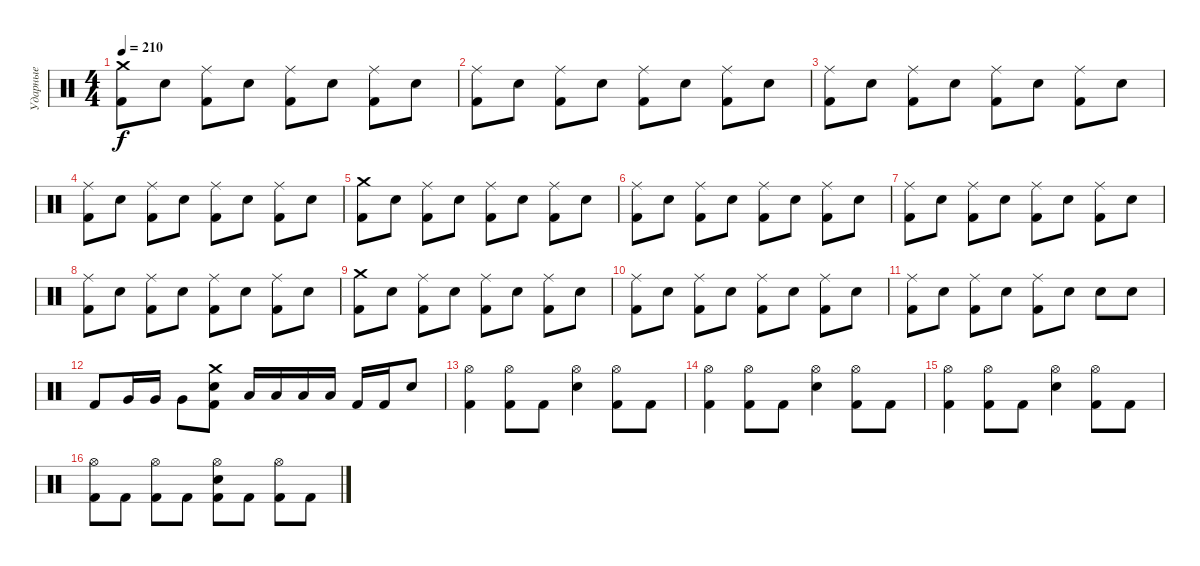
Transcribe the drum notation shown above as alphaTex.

\track ("Ударные" "Ударные") {instrument percussion}
\staff {score}
\articulation defaults
\ts (4 4)
\tempo 210
\clef neutral
\ks c
("Crash medium (hit)" "Kick (hit) 2").8{dy f} "Snare (hit) 2".8 ("Ride (middle)" "Kick (hit) 2").8 "Snare (hit) 2".8 ("Ride (middle)" "Kick (hit) 2").8 "Snare (hit) 2".8 ("Ride (middle)" "Kick (hit) 2").8 "Snare (hit) 2".8 |
("Ride (middle)" "Kick (hit) 2").8 "Snare (hit) 2".8 ("Ride (middle)" "Kick (hit) 2").8 "Snare (hit) 2".8 ("Ride (middle)" "Kick (hit) 2").8 "Snare (hit) 2".8 ("Ride (middle)" "Kick (hit) 2").8 "Snare (hit) 2".8 |
("Ride (middle)" "Kick (hit) 2").8 "Snare (hit) 2".8 ("Ride (middle)" "Kick (hit) 2").8 "Snare (hit) 2".8 ("Ride (middle)" "Kick (hit) 2").8 "Snare (hit) 2".8 ("Ride (middle)" "Kick (hit) 2").8 "Snare (hit) 2".8 |
("Ride (middle)" "Kick (hit) 2").8 "Snare (hit) 2".8 ("Ride (middle)" "Kick (hit) 2").8 "Snare (hit) 2".8 ("Ride (middle)" "Kick (hit) 2").8 "Snare (hit) 2".8 ("Ride (middle)" "Kick (hit) 2").8 "Snare (hit) 2".8 |
("Crash medium (hit)" "Kick (hit) 2").8 "Snare (hit) 2".8 ("Ride (middle)" "Kick (hit) 2").8 "Snare (hit) 2".8 ("Ride (middle)" "Kick (hit) 2").8 "Snare (hit) 2".8 ("Ride (middle)" "Kick (hit) 2").8 "Snare (hit) 2".8 |
("Ride (middle)" "Kick (hit) 2").8 "Snare (hit) 2".8 ("Ride (middle)" "Kick (hit) 2").8 "Snare (hit) 2".8 ("Ride (middle)" "Kick (hit) 2").8 "Snare (hit) 2".8 ("Ride (middle)" "Kick (hit) 2").8 "Snare (hit) 2".8 |
("Ride (middle)" "Kick (hit) 2").8 "Snare (hit) 2".8 ("Ride (middle)" "Kick (hit) 2").8 "Snare (hit) 2".8 ("Ride (middle)" "Kick (hit) 2").8 "Snare (hit) 2".8 ("Ride (middle)" "Kick (hit) 2").8 "Snare (hit) 2".8 |
("Ride (middle)" "Kick (hit) 2").8 "Snare (hit) 2".8 ("Ride (middle)" "Kick (hit) 2").8 "Snare (hit) 2".8 ("Ride (middle)" "Kick (hit) 2").8 "Snare (hit) 2".8 ("Ride (middle)" "Kick (hit) 2").8 "Snare (hit) 2".8 |
("Crash medium (hit)" "Kick (hit) 2").8 "Snare (hit) 2".8 ("Ride (middle)" "Kick (hit) 2").8 "Snare (hit) 2".8 ("Ride (middle)" "Kick (hit) 2").8 "Snare (hit) 2".8 ("Ride (middle)" "Kick (hit) 2").8 "Snare (hit) 2".8 |
("Ride (middle)" "Kick (hit) 2").8 "Snare (hit) 2".8 ("Ride (middle)" "Kick (hit) 2").8 "Snare (hit) 2".8 ("Ride (middle)" "Kick (hit) 2").8 "Snare (hit) 2".8 ("Ride (middle)" "Kick (hit) 2").8 "Snare (hit) 2".8 |
("Ride (middle)" "Kick (hit) 2").8 "Snare (hit) 2".8 ("Ride (middle)" "Kick (hit) 2").8 "Snare (hit) 2".8 ("Ride (middle)" "Kick (hit) 2").8 "Snare (hit) 2".8 "Snare (hit) 2".8 "Snare (hit) 2".8 |
"Kick (hit) 2".8 "Very Low Tom (hit)".16 "Very Low Tom (hit)".16 "Very Low Tom (hit)".8 ("Crash medium (hit)" "Snare (hit) 2" "Kick (hit) 2").8 "Low Tom (hit)".16 "Low Tom (hit)".16 "Low Tom (hit)".16 "Low Tom (hit)".16 "Kick (hit) 2".16 "Kick (hit) 2".16 "Snare (hit) 2".8 |
("Hi-Hat (open)" "Kick (hit) 2").4 ("Hi-Hat (open)" "Kick (hit) 2").8 "Kick (hit) 2".8 ("Hi-Hat (open)" "Snare (hit) 2").4 ("Hi-Hat (open)" "Kick (hit) 2").8 "Kick (hit) 2".8 |
("Hi-Hat (open)" "Kick (hit) 2").4 ("Hi-Hat (open)" "Kick (hit) 2").8 "Kick (hit) 2".8 ("Hi-Hat (open)" "Snare (hit) 2").4 ("Hi-Hat (open)" "Kick (hit) 2").8 "Kick (hit) 2".8 |
("Hi-Hat (open)" "Kick (hit) 2").4 ("Hi-Hat (open)" "Kick (hit) 2").8 "Kick (hit) 2".8 ("Hi-Hat (open)" "Snare (hit) 2").4 ("Hi-Hat (open)" "Kick (hit) 2").8 "Kick (hit) 2".8 |
("Hi-Hat (open)" "Kick (hit) 2").8 "Kick (hit) 2".8 ("Hi-Hat (open)" "Kick (hit) 2").8 "Kick (hit) 2".8 ("Hi-Hat (open)" "Snare (hit) 2" "Kick (hit) 2").8 "Kick (hit) 2".8 ("Hi-Hat (open)" "Kick (hit) 2").8 "Kick (hit) 2".8
